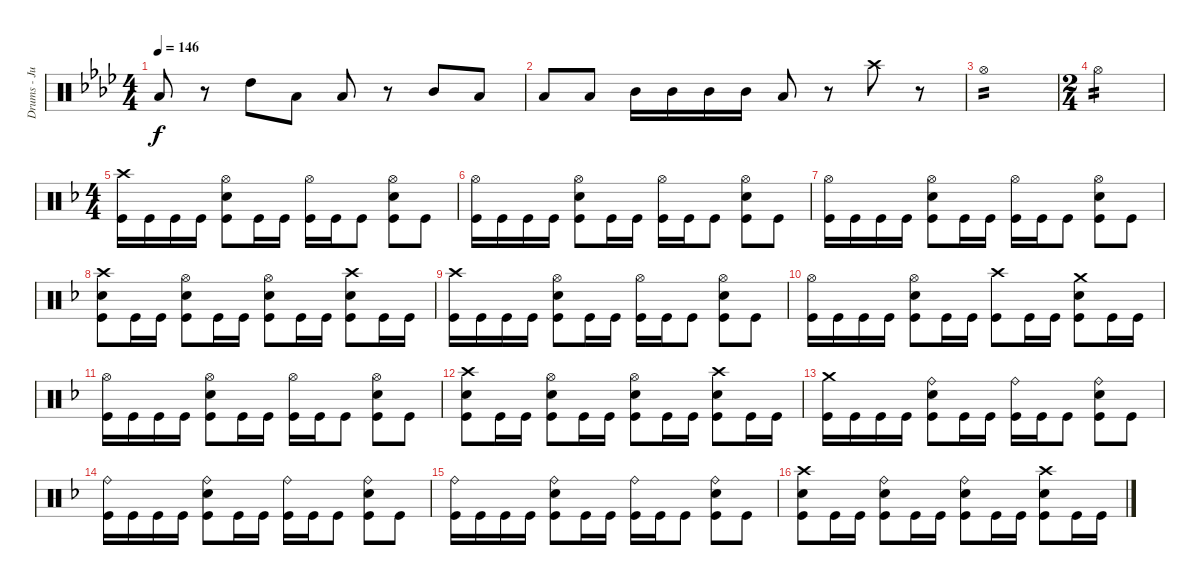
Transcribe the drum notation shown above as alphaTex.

\track ("Drums - Jukka" "Drums - Ju") {instrument percussion}
\staff {score}
\articulation defaults
\ts (4 4)
\tempo 146
\clef neutral
\ks fminor "Low Floor Tom (hit)".8{dy f}
r.8 "High Tom (hit)".8 "Low Floor Tom (hit)".8 "Low Floor Tom (hit)".8 r.8 "Mid Tom (hit)".8 "Low Floor Tom (hit)".8 |
"Low Floor Tom (hit)".8 "Low Floor Tom (hit)".8 "Mid Tom (hit)".16 "Mid Tom (hit)".16 "Mid Tom (hit)".16 "Mid Tom (hit)".16 "Low Floor Tom (hit)".8 r.8 "Crash high (hit)".8 r.8 |
"Hi-Hat (open)".1{tp 2} |
\ts (2 4)
"Hi-Hat (open)".2{tp 2} |
\ts (4 4)
\ks dminor
("Kick (hit)" "Crash high (hit)").16 "Kick (hit)".16 "Kick (hit)".16 "Kick (hit)".16 ("Kick (hit)" "Snare (hit) 2" "Hi-Hat (open)").8 "Kick (hit)".16 "Kick (hit)".16 ("Kick (hit)" "Hi-Hat (open)").16 "Kick (hit)".16 "Kick (hit)".8 ("Kick (hit)" "Snare (hit) 2" "Hi-Hat (open)").8 "Kick (hit)".8 |
("Kick (hit)" "Hi-Hat (open)").16 "Kick (hit)".16 "Kick (hit)".16 "Kick (hit)".16 ("Kick (hit)" "Snare (hit) 2" "Hi-Hat (open)").8 "Kick (hit)".16 "Kick (hit)".16 ("Kick (hit)" "Hi-Hat (open)").16 "Kick (hit)".16 "Kick (hit)".8 ("Kick (hit)" "Snare (hit) 2" "Hi-Hat (open)").8 "Kick (hit)".8 |
("Kick (hit)" "Hi-Hat (open)").16 "Kick (hit)".16 "Kick (hit)".16 "Kick (hit)".16 ("Kick (hit)" "Snare (hit) 2" "Hi-Hat (open)").8 "Kick (hit)".16 "Kick (hit)".16 ("Kick (hit)" "Hi-Hat (open)").16 "Kick (hit)".16 "Kick (hit)".8 ("Kick (hit)" "Snare (hit) 2" "Hi-Hat (open)").8 "Kick (hit)".8 |
("Kick (hit)" "Crash high (hit)" "Snare (hit) 2").8 "Kick (hit)".16 "Kick (hit)".16 ("Kick (hit)" "Snare (hit) 2" "Hi-Hat (open)").8 "Kick (hit)".16 "Kick (hit)".16 ("Kick (hit)" "Snare (hit) 2" "Hi-Hat (open)").8 "Kick (hit)".16 "Kick (hit)".16 ("Kick (hit)" "Snare (hit) 2" "Crash high (hit)").8 "Kick (hit)".16 "Kick (hit)".16 |
("Kick (hit)" "Crash high (hit)").16 "Kick (hit)".16 "Kick (hit)".16 "Kick (hit)".16 ("Kick (hit)" "Snare (hit) 2" "Hi-Hat (open)").8 "Kick (hit)".16 "Kick (hit)".16 ("Kick (hit)" "Hi-Hat (open)").16 "Kick (hit)".16 "Kick (hit)".8 ("Kick (hit)" "Snare (hit) 2" "Hi-Hat (open)").8 "Kick (hit)".8 |
("Kick (hit)" "Hi-Hat (open)").16 "Kick (hit)".16 "Kick (hit)".16 "Kick (hit)".16 ("Kick (hit)" "Snare (hit) 2" "Hi-Hat (open)").8 "Kick (hit)".16 "Kick (hit)".16 ("Kick (hit)" "Crash high (hit)").8 "Kick (hit)".16 "Kick (hit)".16 ("Kick (hit)" "Snare (hit) 2" "Crash medium (hit)").8 "Kick (hit)".16 "Kick (hit)".16 |
("Kick (hit)" "Hi-Hat (open)").16 "Kick (hit)".16 "Kick (hit)".16 "Kick (hit)".16 ("Kick (hit)" "Snare (hit) 2" "Hi-Hat (open)").8 "Kick (hit)".16 "Kick (hit)".16 ("Kick (hit)" "Hi-Hat (open)").16 "Kick (hit)".16 "Kick (hit)".8 ("Kick (hit)" "Snare (hit) 2" "Hi-Hat (open)").8 "Kick (hit)".8 |
("Kick (hit)" "Crash high (hit)" "Snare (hit) 2").8 "Kick (hit)".16 "Kick (hit)".16 ("Kick (hit)" "Snare (hit) 2" "Hi-Hat (open)").8 "Kick (hit)".16 "Kick (hit)".16 ("Kick (hit)" "Snare (hit) 2" "Hi-Hat (open)").8 "Kick (hit)".16 "Kick (hit)".16 ("Kick (hit)" "Snare (hit) 2" "Crash high (hit)").8 "Kick (hit)".16 "Kick (hit)".16 |
("Kick (hit)" "Crash medium (hit)").16 "Kick (hit)".16 "Kick (hit)".16 "Kick (hit)".16 ("Kick (hit)" "Snare (hit) 2" "Ride (bell)").8 "Kick (hit)".16 "Kick (hit)".16 ("Kick (hit)" "Ride (bell)").16 "Kick (hit)".16 "Kick (hit)".8 ("Kick (hit)" "Snare (hit) 2" "Ride (bell)").8 "Kick (hit)".8 |
("Kick (hit)" "Ride (bell)").16 "Kick (hit)".16 "Kick (hit)".16 "Kick (hit)".16 ("Kick (hit)" "Snare (hit) 2" "Ride (bell)").8 "Kick (hit)".16 "Kick (hit)".16 ("Kick (hit)" "Ride (bell)").16 "Kick (hit)".16 "Kick (hit)".8 ("Kick (hit)" "Snare (hit) 2" "Ride (bell)").8 "Kick (hit)".8 |
("Kick (hit)" "Ride (bell)").16 "Kick (hit)".16 "Kick (hit)".16 "Kick (hit)".16 ("Kick (hit)" "Snare (hit) 2" "Ride (bell)").8 "Kick (hit)".16 "Kick (hit)".16 ("Kick (hit)" "Ride (bell)").16 "Kick (hit)".16 "Kick (hit)".8 ("Kick (hit)" "Snare (hit) 2" "Ride (bell)").8 "Kick (hit)".8 |
("Kick (hit)" "Crash high (hit)" "Snare (hit) 2").8 "Kick (hit)".16 "Kick (hit)".16 ("Kick (hit)" "Snare (hit) 2" "Ride (bell)").8 "Kick (hit)".16 "Kick (hit)".16 ("Kick (hit)" "Snare (hit) 2" "Ride (bell)").8 "Kick (hit)".16 "Kick (hit)".16 ("Kick (hit)" "Snare (hit) 2" "Crash high (hit)").8 "Kick (hit)".16 "Kick (hit)".16
